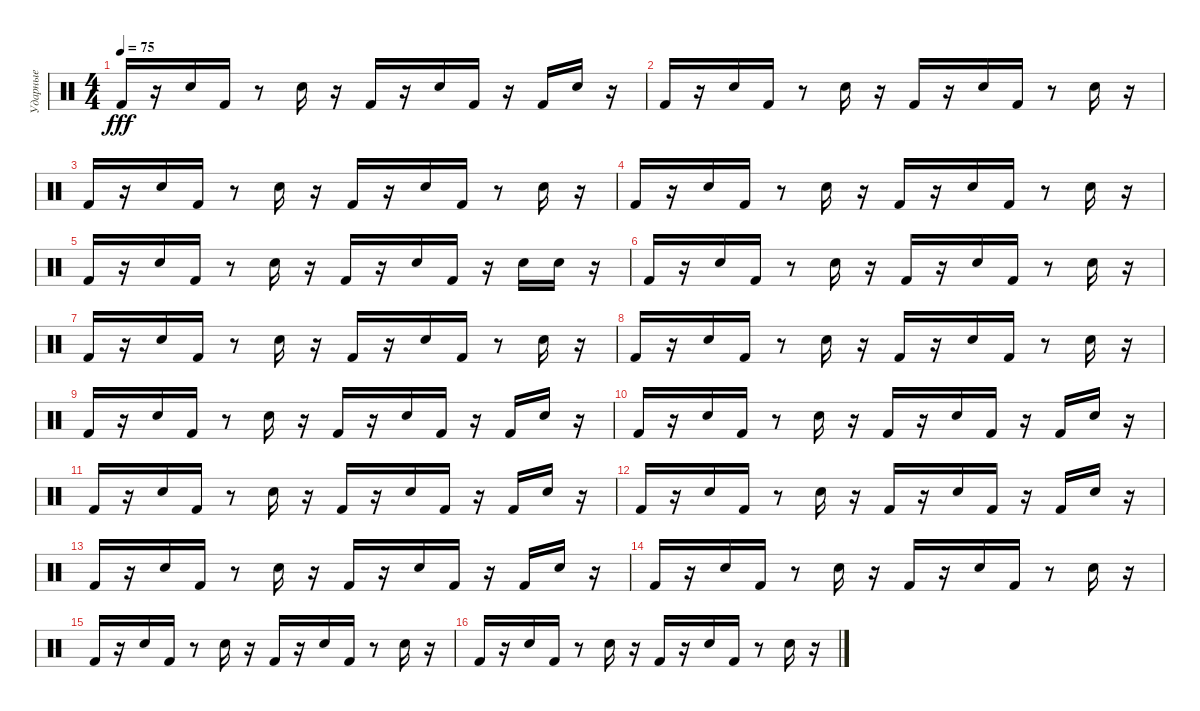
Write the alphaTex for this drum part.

\track ("Ударные" "Ударные") {instrument percussion}
\staff {score}
\articulation defaults
\ts (4 4)
\tempo 75
\clef neutral
\ks c "Kick (hit) 2".16{dy fff}
r.16 "Snare (hit) 2".16 "Kick (hit) 2".16 r.8 "Snare (hit) 2".16 r.16 "Kick (hit) 2".16 r.16 "Snare (hit) 2".16 "Kick (hit) 2".16 r.16 "Kick (hit) 2".16 "Snare (hit) 2".16 r.16 |
"Kick (hit) 2".16 r.16 "Snare (hit) 2".16 "Kick (hit) 2".16 r.8 "Snare (hit) 2".16 r.16 "Kick (hit) 2".16 r.16 "Snare (hit) 2".16 "Kick (hit) 2".16 r.8 "Snare (hit) 2".16 r.16 |
"Kick (hit) 2".16 r.16 "Snare (hit) 2".16 "Kick (hit) 2".16 r.8 "Snare (hit) 2".16 r.16 "Kick (hit) 2".16 r.16 "Snare (hit) 2".16 "Kick (hit) 2".16 r.8 "Snare (hit) 2".16 r.16 |
"Kick (hit) 2".16 r.16 "Snare (hit) 2".16 "Kick (hit) 2".16 r.8 "Snare (hit) 2".16 r.16 "Kick (hit) 2".16 r.16 "Snare (hit) 2".16 "Kick (hit) 2".16 r.8 "Snare (hit) 2".16 r.16 |
"Kick (hit) 2".16 r.16 "Snare (hit) 2".16 "Kick (hit) 2".16 r.8 "Snare (hit) 2".16 r.16 "Kick (hit) 2".16 r.16 "Snare (hit) 2".16 "Kick (hit) 2".16 r.16 "Snare (hit) 2".16 "Snare (hit) 2".16 r.16 |
"Kick (hit) 2".16 r.16 "Snare (hit) 2".16 "Kick (hit) 2".16 r.8 "Snare (hit) 2".16 r.16 "Kick (hit) 2".16 r.16 "Snare (hit) 2".16 "Kick (hit) 2".16 r.8 "Snare (hit) 2".16 r.16 |
"Kick (hit) 2".16 r.16 "Snare (hit) 2".16 "Kick (hit) 2".16 r.8 "Snare (hit) 2".16 r.16 "Kick (hit) 2".16 r.16 "Snare (hit) 2".16 "Kick (hit) 2".16 r.8 "Snare (hit) 2".16 r.16 |
"Kick (hit) 2".16 r.16 "Snare (hit) 2".16 "Kick (hit) 2".16 r.8 "Snare (hit) 2".16 r.16 "Kick (hit) 2".16 r.16 "Snare (hit) 2".16 "Kick (hit) 2".16 r.8 "Snare (hit) 2".16 r.16 |
"Kick (hit) 2".16 r.16 "Snare (hit) 2".16 "Kick (hit) 2".16 r.8 "Snare (hit) 2".16 r.16 "Kick (hit) 2".16 r.16 "Snare (hit) 2".16 "Kick (hit) 2".16 r.16 "Kick (hit) 2".16 "Snare (hit) 2".16 r.16 |
"Kick (hit) 2".16 r.16 "Snare (hit) 2".16 "Kick (hit) 2".16 r.8 "Snare (hit) 2".16 r.16 "Kick (hit) 2".16 r.16 "Snare (hit) 2".16 "Kick (hit) 2".16 r.16 "Kick (hit) 2".16 "Snare (hit) 2".16 r.16 |
"Kick (hit) 2".16 r.16 "Snare (hit) 2".16 "Kick (hit) 2".16 r.8 "Snare (hit) 2".16 r.16 "Kick (hit) 2".16 r.16 "Snare (hit) 2".16 "Kick (hit) 2".16 r.16 "Kick (hit) 2".16 "Snare (hit) 2".16 r.16 |
"Kick (hit) 2".16 r.16 "Snare (hit) 2".16 "Kick (hit) 2".16 r.8 "Snare (hit) 2".16 r.16 "Kick (hit) 2".16 r.16 "Snare (hit) 2".16 "Kick (hit) 2".16 r.16 "Kick (hit) 2".16 "Snare (hit) 2".16 r.16 |
"Kick (hit) 2".16 r.16 "Snare (hit) 2".16 "Kick (hit) 2".16 r.8 "Snare (hit) 2".16 r.16 "Kick (hit) 2".16 r.16 "Snare (hit) 2".16 "Kick (hit) 2".16 r.16 "Kick (hit) 2".16 "Snare (hit) 2".16 r.16 |
"Kick (hit) 2".16 r.16 "Snare (hit) 2".16 "Kick (hit) 2".16 r.8 "Snare (hit) 2".16 r.16 "Kick (hit) 2".16 r.16 "Snare (hit) 2".16 "Kick (hit) 2".16 r.8 "Snare (hit) 2".16 r.16 |
"Kick (hit) 2".16 r.16 "Snare (hit) 2".16 "Kick (hit) 2".16 r.8 "Snare (hit) 2".16 r.16 "Kick (hit) 2".16 r.16 "Snare (hit) 2".16 "Kick (hit) 2".16 r.8 "Snare (hit) 2".16 r.16 |
"Kick (hit) 2".16 r.16 "Snare (hit) 2".16 "Kick (hit) 2".16 r.8 "Snare (hit) 2".16 r.16 "Kick (hit) 2".16 r.16 "Snare (hit) 2".16 "Kick (hit) 2".16 r.8 "Snare (hit) 2".16 r.16
